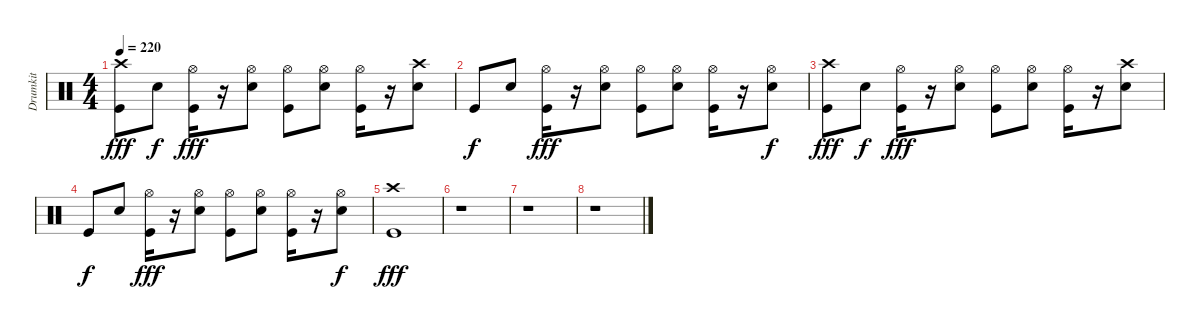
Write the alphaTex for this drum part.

\track ("Drumkit" "Drumkit") {instrument percussion}
\staff {score}
\articulation defaults
\ts (4 4)
\tempo 220
\clef neutral
\ks c
("Crash high (hit)" "Kick (hit)").8{dy fff} "Snare (hit) 2".8{dy f} ("Hi-Hat (open)" "Kick (hit)").16{dy fff} r.16 ("Hi-Hat (open)" "Snare (hit) 2").8 ("Hi-Hat (open)" "Kick (hit)").8 ("Hi-Hat (open)" "Snare (hit) 2").8 ("Hi-Hat (open)" "Kick (hit)").16 r.16 ("Crash high (hit)" "Snare (hit) 2").8 |
"Kick (hit)".8{dy f} "Snare (hit) 2".8 ("Hi-Hat (open)" "Kick (hit)").16{dy fff} r.16 ("Hi-Hat (open)" "Snare (hit) 2").8 ("Hi-Hat (open)" "Kick (hit)").8 ("Hi-Hat (open)" "Snare (hit) 2").8 ("Hi-Hat (open)" "Kick (hit)").16 r.16 ("Hi-Hat (open)" "Snare (hit) 2").8{dy f} |
("Crash high (hit)" "Kick (hit)").8{dy fff} "Snare (hit) 2".8{dy f} ("Hi-Hat (open)" "Kick (hit)").16{dy fff} r.16 ("Hi-Hat (open)" "Snare (hit) 2").8 ("Hi-Hat (open)" "Kick (hit)").8 ("Hi-Hat (open)" "Snare (hit) 2").8 ("Hi-Hat (open)" "Kick (hit)").16 r.16 ("Crash high (hit)" "Snare (hit) 2").8 |
"Kick (hit)".8{dy f} "Snare (hit) 2".8 ("Hi-Hat (open)" "Kick (hit)").16{dy fff} r.16 ("Hi-Hat (open)" "Snare (hit) 2").8 ("Hi-Hat (open)" "Kick (hit)").8 ("Hi-Hat (open)" "Snare (hit) 2").8 ("Hi-Hat (open)" "Kick (hit)").16 r.16 ("Hi-Hat (open)" "Snare (hit) 2").8{dy f} |
("Crash high (hit)" "Kick (hit)").1{dy fff} |
r.1 |
r.1 |
r.1
